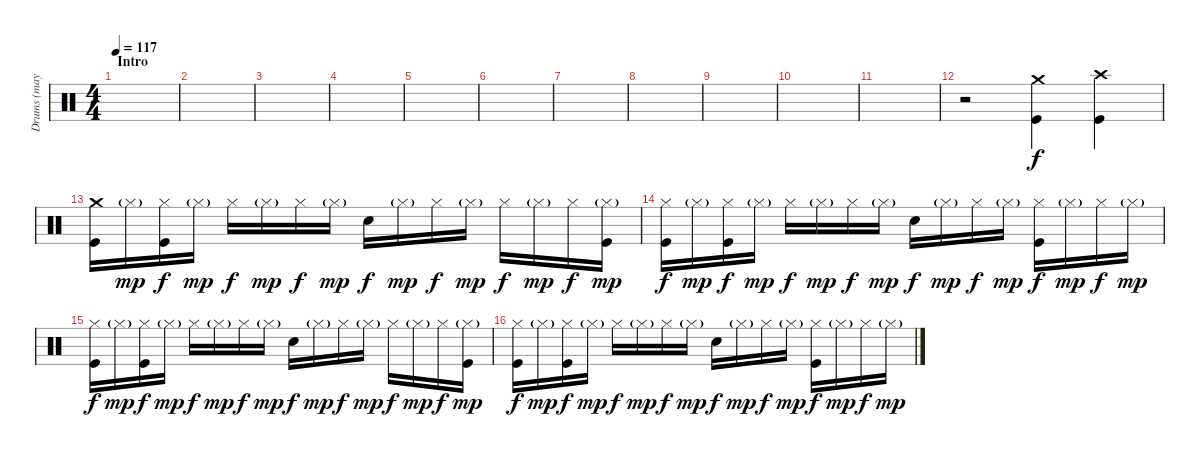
\track ("Drums (maybe electrical, too)" "Drums (may") {instrument percussion}
\staff {score}
\articulation defaults
\ts (4 4)
\section ("" "Intro")
\tempo 117
\clef neutral
\ks c
|
|
|
|
|
|
|
|
|
|
|
r.2 ("Crash medium (hit)" "Kick (hit)").4 ("Crash high (hit)" "Kick (hit)").4 |
\section ("" "")
("Crash medium (hit)" "Kick (hit)").16 "Hi-Hat (closed)"{g}.16{dy mp} ("Hi-Hat (closed)" "Kick (hit)").16{dy f} "Hi-Hat (closed)"{g}.16{dy mp} "Hi-Hat (closed)".16{dy f} "Hi-Hat (closed)"{g}.16{dy mp} "Hi-Hat (closed)".16{dy f} "Hi-Hat (closed)"{g}.16{dy mp} "Electric Snare (hit)".16{dy f} "Hi-Hat (closed)"{g}.16{dy mp} "Hi-Hat (closed)".16{dy f} "Hi-Hat (closed)"{g}.16{dy mp} "Hi-Hat (closed)".16{dy f} "Hi-Hat (closed)"{g}.16{dy mp} "Hi-Hat (closed)".16{dy f} ("Hi-Hat (closed)"{g} "Kick (hit)").16{dy mp} |
("Hi-Hat (closed)" "Kick (hit)").16{dy f} "Hi-Hat (closed)"{g}.16{dy mp} ("Hi-Hat (closed)" "Kick (hit)").16{dy f} "Hi-Hat (closed)"{g}.16{dy mp} "Hi-Hat (closed)".16{dy f} "Hi-Hat (closed)"{g}.16{dy mp} "Hi-Hat (closed)".16{dy f} "Hi-Hat (closed)"{g}.16{dy mp} "Electric Snare (hit)".16{dy f} "Hi-Hat (closed)"{g}.16{dy mp} "Hi-Hat (closed)".16{dy f} "Hi-Hat (closed)"{g}.16{dy mp} ("Hi-Hat (closed)" "Kick (hit)").16{dy f} "Hi-Hat (closed)"{g}.16{dy mp} "Hi-Hat (closed)".16{dy f} "Hi-Hat (closed)"{g}.16{dy mp} |
("Hi-Hat (closed)" "Kick (hit)").16{dy f} "Hi-Hat (closed)"{g}.16{dy mp} ("Hi-Hat (closed)" "Kick (hit)").16{dy f} "Hi-Hat (closed)"{g}.16{dy mp} "Hi-Hat (closed)".16{dy f} "Hi-Hat (closed)"{g}.16{dy mp} "Hi-Hat (closed)".16{dy f} "Hi-Hat (closed)"{g}.16{dy mp} "Electric Snare (hit)".16{dy f} "Hi-Hat (closed)"{g}.16{dy mp} "Hi-Hat (closed)".16{dy f} "Hi-Hat (closed)"{g}.16{dy mp} "Hi-Hat (closed)".16{dy f} "Hi-Hat (closed)"{g}.16{dy mp} "Hi-Hat (closed)".16{dy f} ("Hi-Hat (closed)"{g} "Kick (hit)").16{dy mp} |
("Hi-Hat (closed)" "Kick (hit)").16{dy f} "Hi-Hat (closed)"{g}.16{dy mp} ("Hi-Hat (closed)" "Kick (hit)").16{dy f} "Hi-Hat (closed)"{g}.16{dy mp} "Hi-Hat (closed)".16{dy f} "Hi-Hat (closed)"{g}.16{dy mp} "Hi-Hat (closed)".16{dy f} "Hi-Hat (closed)"{g}.16{dy mp} "Electric Snare (hit)".16{dy f} "Hi-Hat (closed)"{g}.16{dy mp} "Hi-Hat (closed)".16{dy f} "Hi-Hat (closed)"{g}.16{dy mp} ("Hi-Hat (closed)" "Kick (hit)").16{dy f} "Hi-Hat (closed)"{g}.16{dy mp} "Hi-Hat (closed)".16{dy f} "Hi-Hat (closed)"{g}.16{dy mp}
